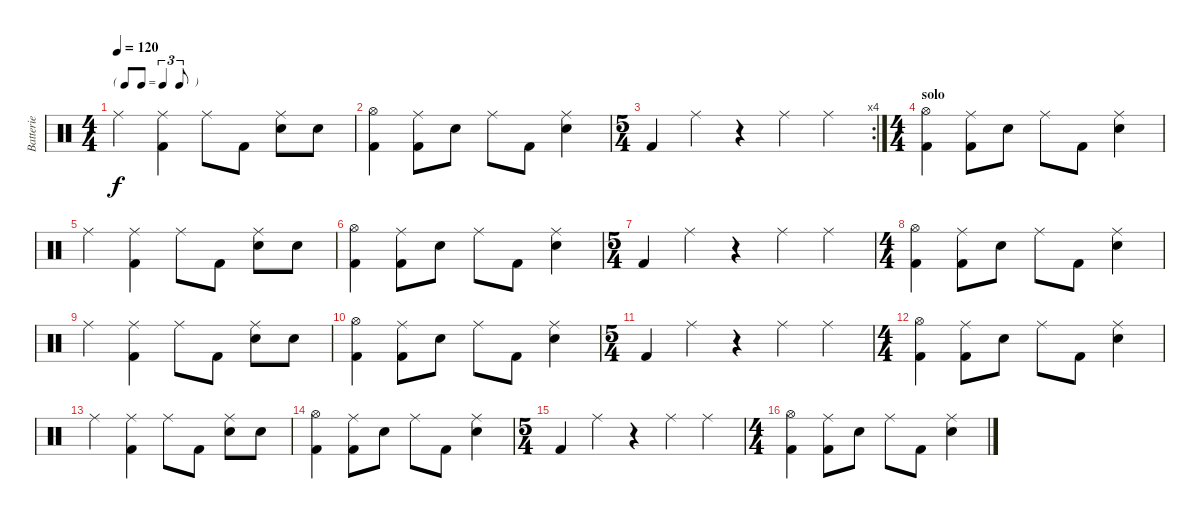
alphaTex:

\track ("Batterie" "Batterie") {instrument percussion}
\staff {score}
\articulation defaults
\ts (4 4)
\tf triplet8th
\tempo 120
\clef neutral
\ks c "Ride (middle)".4{dy f}
("Ride (middle)" "Kick (hit) 2").4 "Ride (middle)".8 "Kick (hit) 2".8 ("Ride (middle)" "Electric Snare (hit)").8 "Electric Snare (hit)".8 |
("Hi-Hat (open)" "Kick (hit) 2").4 ("Ride (middle)" "Kick (hit) 2").8 "Electric Snare (hit)".8 "Ride (middle)".8 "Kick (hit) 2".8 ("Ride (middle)" "Electric Snare (hit)").4 |
\rc 4
\ts (5 4)
"Kick (hit) 2".4 "Ride (middle)".4 r.4 "Ride (middle)".4 "Ride (middle)".4 |
\ts (4 4)
\section ("" "solo")
("Hi-Hat (open)" "Kick (hit) 2").4 ("Ride (middle)" "Kick (hit) 2").8 "Electric Snare (hit)".8 "Ride (middle)".8 "Kick (hit) 2".8 ("Ride (middle)" "Electric Snare (hit)").4 |
"Ride (middle)".4 ("Ride (middle)" "Kick (hit) 2").4 "Ride (middle)".8 "Kick (hit) 2".8 ("Ride (middle)" "Electric Snare (hit)").8 "Electric Snare (hit)".8 |
("Hi-Hat (open)" "Kick (hit) 2").4 ("Ride (middle)" "Kick (hit) 2").8 "Electric Snare (hit)".8 "Ride (middle)".8 "Kick (hit) 2".8 ("Ride (middle)" "Electric Snare (hit)").4 |
\ts (5 4)
"Kick (hit) 2".4 "Ride (middle)".4 r.4 "Ride (middle)".4 "Ride (middle)".4 |
\ts (4 4)
("Hi-Hat (open)" "Kick (hit) 2").4 ("Ride (middle)" "Kick (hit) 2").8 "Electric Snare (hit)".8 "Ride (middle)".8 "Kick (hit) 2".8 ("Ride (middle)" "Electric Snare (hit)").4 |
"Ride (middle)".4 ("Ride (middle)" "Kick (hit) 2").4 "Ride (middle)".8 "Kick (hit) 2".8 ("Ride (middle)" "Electric Snare (hit)").8 "Electric Snare (hit)".8 |
("Hi-Hat (open)" "Kick (hit) 2").4 ("Ride (middle)" "Kick (hit) 2").8 "Electric Snare (hit)".8 "Ride (middle)".8 "Kick (hit) 2".8 ("Ride (middle)" "Electric Snare (hit)").4 |
\ts (5 4)
"Kick (hit) 2".4 "Ride (middle)".4 r.4 "Ride (middle)".4 "Ride (middle)".4 |
\ts (4 4)
("Hi-Hat (open)" "Kick (hit) 2").4 ("Ride (middle)" "Kick (hit) 2").8 "Electric Snare (hit)".8 "Ride (middle)".8 "Kick (hit) 2".8 ("Ride (middle)" "Electric Snare (hit)").4 |
"Ride (middle)".4 ("Ride (middle)" "Kick (hit) 2").4 "Ride (middle)".8 "Kick (hit) 2".8 ("Ride (middle)" "Electric Snare (hit)").8 "Electric Snare (hit)".8 |
("Hi-Hat (open)" "Kick (hit) 2").4 ("Ride (middle)" "Kick (hit) 2").8 "Electric Snare (hit)".8 "Ride (middle)".8 "Kick (hit) 2".8 ("Ride (middle)" "Electric Snare (hit)").4 |
\ts (5 4)
"Kick (hit) 2".4 "Ride (middle)".4 r.4 "Ride (middle)".4 "Ride (middle)".4 |
\ts (4 4)
("Hi-Hat (open)" "Kick (hit) 2").4 ("Ride (middle)" "Kick (hit) 2").8 "Electric Snare (hit)".8 "Ride (middle)".8 "Kick (hit) 2".8 ("Ride (middle)" "Electric Snare (hit)").4
